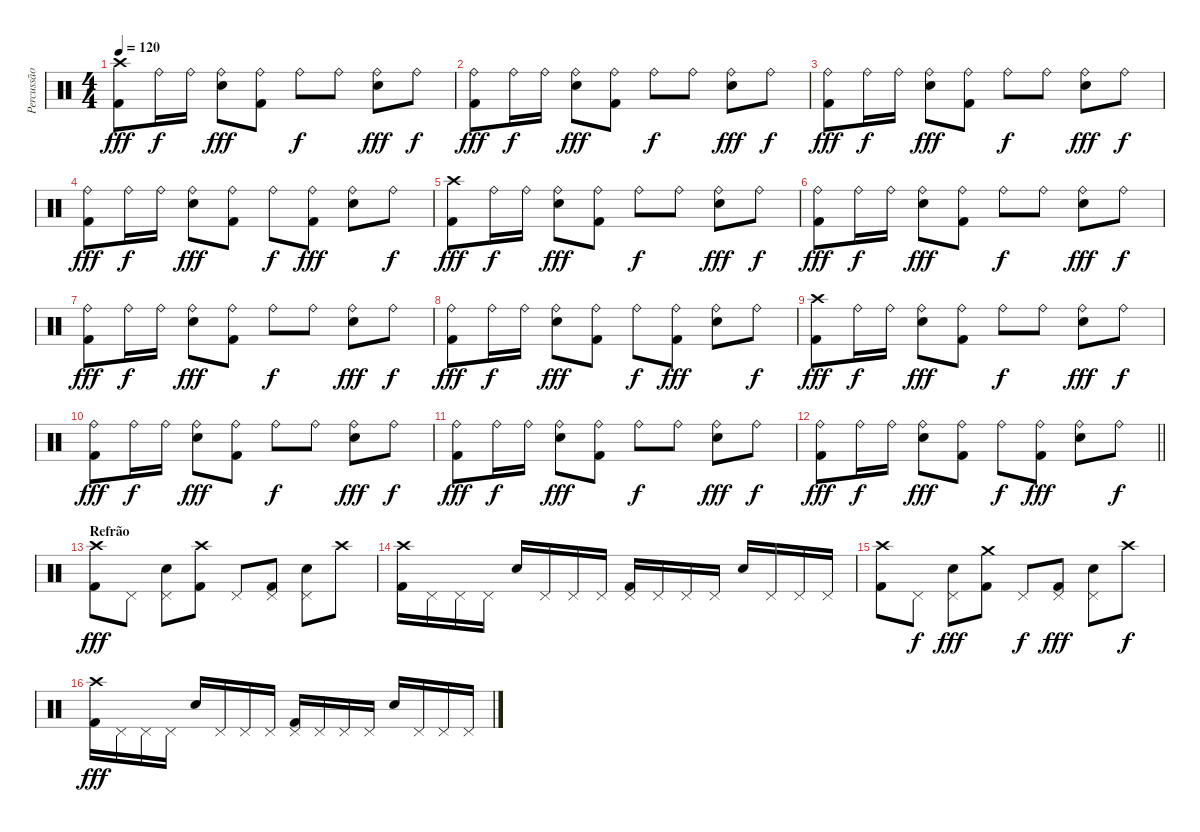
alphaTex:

\track ("Percussão" "Percussão") {instrument percussion}
\staff {score}
\articulation defaults
\ts (4 4)
\tempo 120
\clef neutral
\ks c
("Crash high (hit)" "Kick (hit) 2").8{dy fff} "Ride (bell)".16{dy f} "Ride (bell)".16 ("Ride (bell)" "Electric Snare (hit)").8{dy fff} ("Ride (bell)" "Kick (hit) 2").8 "Ride (bell)".8{dy f} "Ride (bell)".8 ("Ride (bell)" "Electric Snare (hit)").8{dy fff} "Ride (bell)".8{dy f} |
("Ride (bell)" "Kick (hit) 2").8{dy fff} "Ride (bell)".16{dy f} "Ride (bell)".16 ("Ride (bell)" "Electric Snare (hit)").8{dy fff} ("Ride (bell)" "Kick (hit) 2").8 "Ride (bell)".8{dy f} "Ride (bell)".8 ("Ride (bell)" "Electric Snare (hit)").8{dy fff} "Ride (bell)".8{dy f} |
("Ride (bell)" "Kick (hit) 2").8{dy fff} "Ride (bell)".16{dy f} "Ride (bell)".16 ("Ride (bell)" "Electric Snare (hit)").8{dy fff} ("Ride (bell)" "Kick (hit) 2").8 "Ride (bell)".8{dy f} "Ride (bell)".8 ("Ride (bell)" "Electric Snare (hit)").8{dy fff} "Ride (bell)".8{dy f} |
("Ride (bell)" "Kick (hit) 2").8{dy fff} "Ride (bell)".16{dy f} "Ride (bell)".16 ("Ride (bell)" "Electric Snare (hit)").8{dy fff} ("Ride (bell)" "Kick (hit) 2").8 "Ride (bell)".8{dy f} ("Ride (bell)" "Kick (hit) 2").8{dy fff} ("Ride (bell)" "Electric Snare (hit)").8 "Ride (bell)".8{dy f} |
("Crash high (hit)" "Kick (hit) 2").8{dy fff} "Ride (bell)".16{dy f} "Ride (bell)".16 ("Ride (bell)" "Electric Snare (hit)").8{dy fff} ("Ride (bell)" "Kick (hit) 2").8 "Ride (bell)".8{dy f} "Ride (bell)".8 ("Ride (bell)" "Electric Snare (hit)").8{dy fff} "Ride (bell)".8{dy f} |
("Ride (bell)" "Kick (hit) 2").8{dy fff} "Ride (bell)".16{dy f} "Ride (bell)".16 ("Ride (bell)" "Electric Snare (hit)").8{dy fff} ("Ride (bell)" "Kick (hit) 2").8 "Ride (bell)".8{dy f} "Ride (bell)".8 ("Ride (bell)" "Electric Snare (hit)").8{dy fff} "Ride (bell)".8{dy f} |
("Ride (bell)" "Kick (hit) 2").8{dy fff} "Ride (bell)".16{dy f} "Ride (bell)".16 ("Ride (bell)" "Electric Snare (hit)").8{dy fff} ("Ride (bell)" "Kick (hit) 2").8 "Ride (bell)".8{dy f} "Ride (bell)".8 ("Ride (bell)" "Electric Snare (hit)").8{dy fff} "Ride (bell)".8{dy f} |
("Ride (bell)" "Kick (hit) 2").8{dy fff} "Ride (bell)".16{dy f} "Ride (bell)".16 ("Ride (bell)" "Electric Snare (hit)").8{dy fff} ("Ride (bell)" "Kick (hit) 2").8 "Ride (bell)".8{dy f} ("Ride (bell)" "Kick (hit) 2").8{dy fff} ("Ride (bell)" "Electric Snare (hit)").8 "Ride (bell)".8{dy f} |
("Crash high (hit)" "Kick (hit) 2").8{dy fff} "Ride (bell)".16{dy f} "Ride (bell)".16 ("Ride (bell)" "Electric Snare (hit)").8{dy fff} ("Ride (bell)" "Kick (hit) 2").8 "Ride (bell)".8{dy f} "Ride (bell)".8 ("Ride (bell)" "Electric Snare (hit)").8{dy fff} "Ride (bell)".8{dy f} |
("Ride (bell)" "Kick (hit) 2").8{dy fff} "Ride (bell)".16{dy f} "Ride (bell)".16 ("Ride (bell)" "Electric Snare (hit)").8{dy fff} ("Ride (bell)" "Kick (hit) 2").8 "Ride (bell)".8{dy f} "Ride (bell)".8 ("Ride (bell)" "Electric Snare (hit)").8{dy fff} "Ride (bell)".8{dy f} |
("Ride (bell)" "Kick (hit) 2").8{dy fff} "Ride (bell)".16{dy f} "Ride (bell)".16 ("Ride (bell)" "Electric Snare (hit)").8{dy fff} ("Ride (bell)" "Kick (hit) 2").8 "Ride (bell)".8{dy f} "Ride (bell)".8 ("Ride (bell)" "Electric Snare (hit)").8{dy fff} "Ride (bell)".8{dy f} |
\barLineRight lightlight
("Ride (bell)" "Kick (hit) 2").8{dy fff} "Ride (bell)".16{dy f} "Ride (bell)".16 ("Ride (bell)" "Electric Snare (hit)").8{dy fff} ("Ride (bell)" "Kick (hit) 2").8 "Ride (bell)".8{dy f} ("Ride (bell)" "Kick (hit) 2").8{dy fff} ("Ride (bell)" "Electric Snare (hit)").8 "Ride (bell)".8{dy f} |
\section ("" "Refrão")
("Crash high (hit)" "Kick (hit) 2").8{dy fff} "Pedal Hi-Hat (hit)".8 ("Pedal Hi-Hat (hit)" "Electric Snare (hit)").8 ("Crash high (hit)" "Kick (hit) 2").8 "Pedal Hi-Hat (hit)".8 ("Pedal Hi-Hat (hit)" "Kick (hit) 2").8 ("Pedal Hi-Hat (hit)" "Electric Snare (hit)").8 "Crash high (hit)".8 |
("Crash high (hit)" "Kick (hit) 2").16 "Pedal Hi-Hat (hit)".16 "Pedal Hi-Hat (hit)".16 "Pedal Hi-Hat (hit)".16 "Electric Snare (hit)".16 "Pedal Hi-Hat (hit)".16 "Pedal Hi-Hat (hit)".16 "Pedal Hi-Hat (hit)".16 ("Pedal Hi-Hat (hit)" "Kick (hit) 2").16 "Pedal Hi-Hat (hit)".16 "Pedal Hi-Hat (hit)".16 "Pedal Hi-Hat (hit)".16 "Electric Snare (hit)".16 "Pedal Hi-Hat (hit)".16 "Pedal Hi-Hat (hit)".16 "Pedal Hi-Hat (hit)".16 |
("Crash high (hit)" "Kick (hit) 2").8 "Pedal Hi-Hat (hit)".8{dy f} ("Pedal Hi-Hat (hit)" "Electric Snare (hit)").8{dy fff} ("Crash medium (hit)" "Kick (hit) 2").8 "Pedal Hi-Hat (hit)".8{dy f} ("Pedal Hi-Hat (hit)" "Kick (hit) 2").8{dy fff} ("Pedal Hi-Hat (hit)" "Electric Snare (hit)").8 "Crash high (hit)".8{dy f} |
("Crash high (hit)" "Kick (hit) 2").16{dy fff} "Pedal Hi-Hat (hit)".16 "Pedal Hi-Hat (hit)".16 "Pedal Hi-Hat (hit)".16 "Electric Snare (hit)".16 "Pedal Hi-Hat (hit)".16 "Pedal Hi-Hat (hit)".16 "Pedal Hi-Hat (hit)".16 ("Pedal Hi-Hat (hit)" "Kick (hit) 2").16 "Pedal Hi-Hat (hit)".16 "Pedal Hi-Hat (hit)".16 "Pedal Hi-Hat (hit)".16 "Electric Snare (hit)".16 "Pedal Hi-Hat (hit)".16 "Pedal Hi-Hat (hit)".16 "Pedal Hi-Hat (hit)".16
